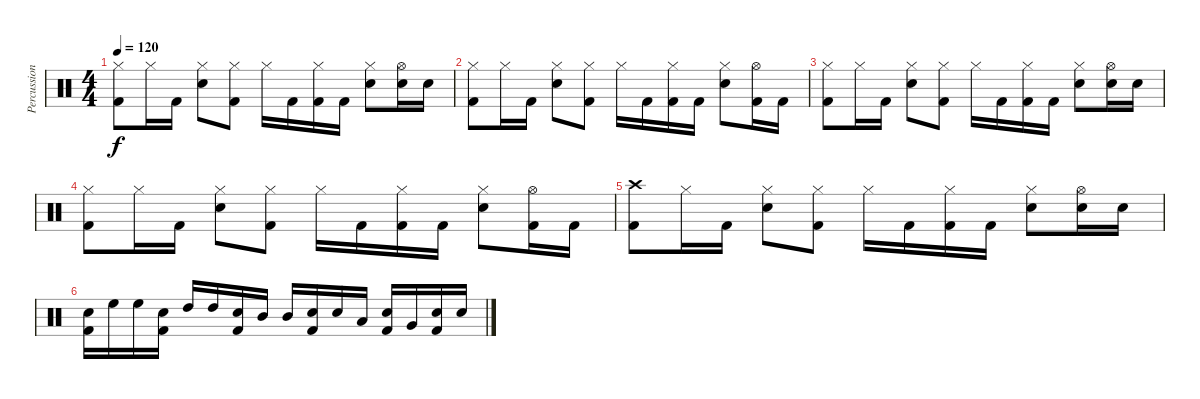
\track ("Percussion" "Percussion") {instrument percussion}
\staff {score}
\articulation defaults
\ts (4 4)
\tempo 120
\clef neutral
\ks c
("Hi-Hat (closed)" "Kick (hit) 2").8{dy f} "Hi-Hat (closed)".16 "Kick (hit) 2".16 ("Hi-Hat (closed)" "Snare (hit) 2").8 ("Hi-Hat (closed)" "Kick (hit) 2").8 "Hi-Hat (closed)".16 "Kick (hit) 2".16 ("Hi-Hat (closed)" "Kick (hit) 2").16 "Kick (hit) 2".16 ("Hi-Hat (closed)" "Snare (hit) 2").8 ("Hi-Hat (open)" "Snare (hit) 2").16 "Snare (hit) 2".16 |
("Hi-Hat (closed)" "Kick (hit) 2").8 "Hi-Hat (closed)".16 "Kick (hit) 2".16 ("Hi-Hat (closed)" "Snare (hit) 2").8 ("Hi-Hat (closed)" "Kick (hit) 2").8 "Hi-Hat (closed)".16 "Kick (hit) 2".16 ("Hi-Hat (closed)" "Kick (hit) 2").16 "Kick (hit) 2".16 ("Hi-Hat (closed)" "Snare (hit) 2").8 ("Hi-Hat (open)" "Kick (hit) 2").16 "Kick (hit) 2".16 |
("Hi-Hat (closed)" "Kick (hit) 2").8 "Hi-Hat (closed)".16 "Kick (hit) 2".16 ("Hi-Hat (closed)" "Snare (hit) 2").8 ("Hi-Hat (closed)" "Kick (hit) 2").8 "Hi-Hat (closed)".16 "Kick (hit) 2".16 ("Hi-Hat (closed)" "Kick (hit) 2").16 "Kick (hit) 2".16 ("Hi-Hat (closed)" "Snare (hit) 2").8 ("Hi-Hat (open)" "Snare (hit) 2").16 "Snare (hit) 2".16 |
("Hi-Hat (closed)" "Kick (hit) 2").8 "Hi-Hat (closed)".16 "Kick (hit) 2".16 ("Hi-Hat (closed)" "Snare (hit) 2").8 ("Hi-Hat (closed)" "Kick (hit) 2").8 "Hi-Hat (closed)".16 "Kick (hit) 2".16 ("Hi-Hat (closed)" "Kick (hit) 2").16 "Kick (hit) 2".16 ("Hi-Hat (closed)" "Snare (hit) 2").8 ("Hi-Hat (open)" "Kick (hit) 2").16 "Kick (hit) 2".16 |
("Crash high (hit)" "Kick (hit) 2").8 "Hi-Hat (closed)".16 "Kick (hit) 2".16 ("Hi-Hat (closed)" "Snare (hit) 2").8 ("Hi-Hat (closed)" "Kick (hit) 2").8 "Hi-Hat (closed)".16 "Kick (hit) 2".16 ("Hi-Hat (closed)" "Kick (hit) 2").16 "Kick (hit) 2".16 ("Hi-Hat (closed)" "Snare (hit) 2").8 ("Hi-Hat (open)" "Snare (hit) 2").16 "Snare (hit) 2".16 |
("Electric Snare (hit)" "Kick (hit) 2").16 "High Floor Tom (hit)".16 "High Floor Tom (hit)".16 ("Electric Snare (hit)" "Kick (hit) 2").16 "High Tom (hit)".16 "High Tom (hit)".16 ("Electric Snare (hit)" "Kick (hit) 2").16 "Mid Tom (hit)".16 "Mid Tom (hit)".16 ("Electric Snare (hit)" "Kick (hit) 2").16 "Electric Snare (hit)".16 "Low Tom (hit)".16 ("Electric Snare (hit)" "Kick (hit) 2").16 "Very Low Tom (hit)".16 ("Electric Snare (hit)" "Kick (hit) 2").16 "Electric Snare (hit)".16
